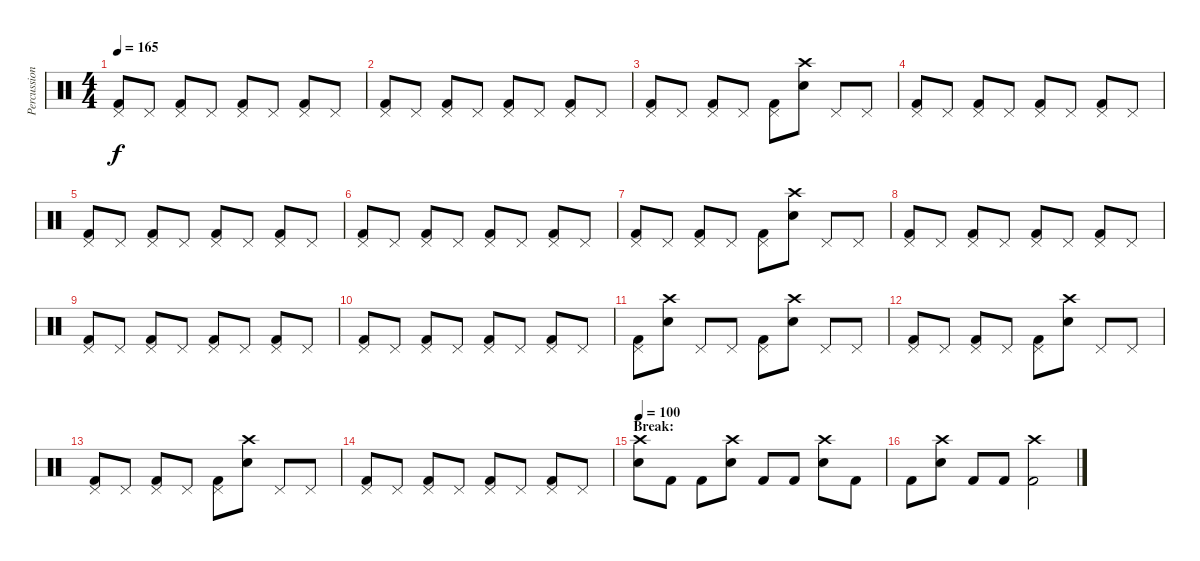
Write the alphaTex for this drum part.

\track ("Percussion" "Percussion") {instrument percussion}
\staff {score}
\articulation defaults
\ts (4 4)
\tempo 165
\clef neutral
\ks c
("Pedal Hi-Hat (hit)" "Kick (hit) 2").8{dy f} "Pedal Hi-Hat (hit)".8 ("Pedal Hi-Hat (hit)" "Kick (hit) 2").8 "Pedal Hi-Hat (hit)".8 ("Pedal Hi-Hat (hit)" "Kick (hit) 2").8 "Pedal Hi-Hat (hit)".8 ("Pedal Hi-Hat (hit)" "Kick (hit) 2").8 "Pedal Hi-Hat (hit)".8 |
("Pedal Hi-Hat (hit)" "Kick (hit) 2").8 "Pedal Hi-Hat (hit)".8 ("Pedal Hi-Hat (hit)" "Kick (hit) 2").8 "Pedal Hi-Hat (hit)".8 ("Pedal Hi-Hat (hit)" "Kick (hit) 2").8 "Pedal Hi-Hat (hit)".8 ("Pedal Hi-Hat (hit)" "Kick (hit) 2").8 "Pedal Hi-Hat (hit)".8 |
("Pedal Hi-Hat (hit)" "Kick (hit) 2").8 "Pedal Hi-Hat (hit)".8 ("Pedal Hi-Hat (hit)" "Kick (hit) 2").8 "Pedal Hi-Hat (hit)".8 ("Pedal Hi-Hat (hit)" "Kick (hit) 2").8 ("Crash high (hit)" "Snare (hit) 2").8 "Pedal Hi-Hat (hit)".8 "Pedal Hi-Hat (hit)".8 |
("Pedal Hi-Hat (hit)" "Kick (hit) 2").8 "Pedal Hi-Hat (hit)".8 ("Pedal Hi-Hat (hit)" "Kick (hit) 2").8 "Pedal Hi-Hat (hit)".8 ("Pedal Hi-Hat (hit)" "Kick (hit) 2").8 "Pedal Hi-Hat (hit)".8 ("Pedal Hi-Hat (hit)" "Kick (hit) 2").8 "Pedal Hi-Hat (hit)".8 |
("Pedal Hi-Hat (hit)" "Kick (hit) 2").8 "Pedal Hi-Hat (hit)".8 ("Pedal Hi-Hat (hit)" "Kick (hit) 2").8 "Pedal Hi-Hat (hit)".8 ("Pedal Hi-Hat (hit)" "Kick (hit) 2").8 "Pedal Hi-Hat (hit)".8 ("Pedal Hi-Hat (hit)" "Kick (hit) 2").8 "Pedal Hi-Hat (hit)".8 |
("Pedal Hi-Hat (hit)" "Kick (hit) 2").8 "Pedal Hi-Hat (hit)".8 ("Pedal Hi-Hat (hit)" "Kick (hit) 2").8 "Pedal Hi-Hat (hit)".8 ("Pedal Hi-Hat (hit)" "Kick (hit) 2").8 "Pedal Hi-Hat (hit)".8 ("Pedal Hi-Hat (hit)" "Kick (hit) 2").8 "Pedal Hi-Hat (hit)".8 |
("Pedal Hi-Hat (hit)" "Kick (hit) 2").8 "Pedal Hi-Hat (hit)".8 ("Pedal Hi-Hat (hit)" "Kick (hit) 2").8 "Pedal Hi-Hat (hit)".8 ("Pedal Hi-Hat (hit)" "Kick (hit) 2").8 ("Crash high (hit)" "Snare (hit) 2").8 "Pedal Hi-Hat (hit)".8 "Pedal Hi-Hat (hit)".8 |
("Pedal Hi-Hat (hit)" "Kick (hit) 2").8 "Pedal Hi-Hat (hit)".8 ("Pedal Hi-Hat (hit)" "Kick (hit) 2").8 "Pedal Hi-Hat (hit)".8 ("Pedal Hi-Hat (hit)" "Kick (hit) 2").8 "Pedal Hi-Hat (hit)".8 ("Pedal Hi-Hat (hit)" "Kick (hit) 2").8 "Pedal Hi-Hat (hit)".8 |
("Pedal Hi-Hat (hit)" "Kick (hit) 2").8 "Pedal Hi-Hat (hit)".8 ("Pedal Hi-Hat (hit)" "Kick (hit) 2").8 "Pedal Hi-Hat (hit)".8 ("Pedal Hi-Hat (hit)" "Kick (hit) 2").8 "Pedal Hi-Hat (hit)".8 ("Pedal Hi-Hat (hit)" "Kick (hit) 2").8 "Pedal Hi-Hat (hit)".8 |
("Pedal Hi-Hat (hit)" "Kick (hit) 2").8 "Pedal Hi-Hat (hit)".8 ("Pedal Hi-Hat (hit)" "Kick (hit) 2").8 "Pedal Hi-Hat (hit)".8 ("Pedal Hi-Hat (hit)" "Kick (hit) 2").8 "Pedal Hi-Hat (hit)".8 ("Pedal Hi-Hat (hit)" "Kick (hit) 2").8 "Pedal Hi-Hat (hit)".8 |
("Pedal Hi-Hat (hit)" "Kick (hit) 2").8 ("Crash high (hit)" "Snare (hit) 2").8 "Pedal Hi-Hat (hit)".8 "Pedal Hi-Hat (hit)".8 ("Pedal Hi-Hat (hit)" "Kick (hit) 2").8 ("Crash high (hit)" "Snare (hit) 2").8 "Pedal Hi-Hat (hit)".8 "Pedal Hi-Hat (hit)".8 |
("Pedal Hi-Hat (hit)" "Kick (hit) 2").8 "Pedal Hi-Hat (hit)".8 ("Pedal Hi-Hat (hit)" "Kick (hit) 2").8 "Pedal Hi-Hat (hit)".8 ("Pedal Hi-Hat (hit)" "Kick (hit) 2").8 ("Crash high (hit)" "Snare (hit) 2").8 "Pedal Hi-Hat (hit)".8 "Pedal Hi-Hat (hit)".8 |
("Pedal Hi-Hat (hit)" "Kick (hit) 2").8 "Pedal Hi-Hat (hit)".8 ("Pedal Hi-Hat (hit)" "Kick (hit) 2").8 "Pedal Hi-Hat (hit)".8 ("Pedal Hi-Hat (hit)" "Kick (hit) 2").8 ("Crash high (hit)" "Snare (hit) 2").8 "Pedal Hi-Hat (hit)".8 "Pedal Hi-Hat (hit)".8 |
("Pedal Hi-Hat (hit)" "Kick (hit) 2").8 "Pedal Hi-Hat (hit)".8 ("Pedal Hi-Hat (hit)" "Kick (hit) 2").8 "Pedal Hi-Hat (hit)".8 ("Pedal Hi-Hat (hit)" "Kick (hit) 2").8 "Pedal Hi-Hat (hit)".8 ("Pedal Hi-Hat (hit)" "Kick (hit) 2").8 "Pedal Hi-Hat (hit)".8 |
\section ("" "Break:")
\tempo 100
("Crash high (hit)" "Snare (hit) 2").8 "Kick (hit) 2".8 "Kick (hit) 2".8 ("Crash high (hit)" "Snare (hit) 2").8 "Kick (hit) 2".8 "Kick (hit) 2".8 ("Crash high (hit)" "Snare (hit) 2").8 "Kick (hit) 2".8 |
"Kick (hit) 2".8 ("Crash high (hit)" "Snare (hit) 2").8 "Kick (hit) 2".8 "Kick (hit) 2".8 ("Crash high (hit)" "Kick (hit) 2").2
